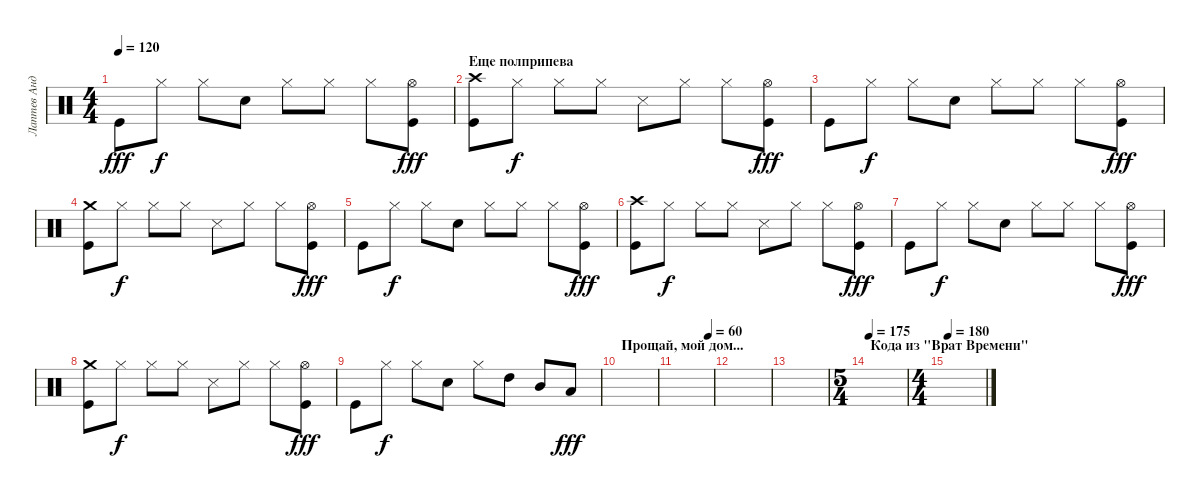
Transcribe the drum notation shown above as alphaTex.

\track ("Лаптев Андрей" "Лаптев Анд") {instrument percussion}
\staff {score}
\articulation defaults
\ts (4 4)
\tempo 120
\clef neutral
\ks c "Kick (hit)".8{dy fff} "Hi-Hat (closed)".8{dy f} "Hi-Hat (closed)".8 "Snare (hit) 2".8 "Hi-Hat (closed)".8 "Hi-Hat (closed)".8 "Hi-Hat (closed)".8
("Kick (hit)" "Hi-Hat (open)").8{dy fff} |
\section ("" "Еще полприпева")
("Kick (hit)" "Crash high (hit)").8 "Hi-Hat (closed)".8{dy f} "Hi-Hat (closed)".8 "Hi-Hat (closed)".8 "Snare (side stick) 3".8 "Hi-Hat (closed)".8 "Hi-Hat (closed)".8 ("Hi-Hat (open)" "Kick (hit)").8{dy fff} |
"Kick (hit)".8 "Hi-Hat (closed)".8{dy f} "Hi-Hat (closed)".8 "Snare (hit) 2".8 "Hi-Hat (closed)".8 "Hi-Hat (closed)".8 "Hi-Hat (closed)".8 ("Kick (hit)" "Hi-Hat (open)").8{dy fff} |
("Kick (hit)" "Crash medium (hit)").8 "Hi-Hat (closed)".8{dy f} "Hi-Hat (closed)".8 "Hi-Hat (closed)".8 "Snare (side stick) 3".8 "Hi-Hat (closed)".8 "Hi-Hat (closed)".8 ("Kick (hit)" "Hi-Hat (open)").8{dy fff} |
"Kick (hit)".8 "Hi-Hat (closed)".8{dy f} "Hi-Hat (closed)".8 "Snare (hit) 2".8 "Hi-Hat (closed)".8 "Hi-Hat (closed)".8 "Hi-Hat (closed)".8 ("Kick (hit)" "Hi-Hat (open)").8{dy fff} |
("Kick (hit)" "Crash high (hit)").8 "Hi-Hat (closed)".8{dy f} "Hi-Hat (closed)".8 "Hi-Hat (closed)".8 "Snare (side stick) 3".8 "Hi-Hat (closed)".8 "Hi-Hat (closed)".8 ("Hi-Hat (open)" "Kick (hit)").8{dy fff} |
"Kick (hit)".8 "Hi-Hat (closed)".8{dy f} "Hi-Hat (closed)".8 "Snare (hit) 2".8 "Hi-Hat (closed)".8 "Hi-Hat (closed)".8 "Hi-Hat (closed)".8 ("Kick (hit)" "Hi-Hat (open)").8{dy fff} |
("Kick (hit)" "Crash medium (hit)").8 "Hi-Hat (closed)".8{dy f} "Hi-Hat (closed)".8 "Hi-Hat (closed)".8 "Snare (side stick) 3".8 "Hi-Hat (closed)".8 "Hi-Hat (closed)".8 ("Kick (hit)" "Hi-Hat (open)").8{dy fff} |
"Kick (hit)".8 "Hi-Hat (closed)".8{dy f} "Hi-Hat (closed)".8 "Snare (hit) 2".8 "Hi-Hat (closed)".8 "High Tom (hit)".8 "Mid Tom (hit)".8 "Low Tom (hit)".8{dy fff} |
\section ("" "Прощай, мой дом...")
|
\tempo (60 0.875)
|
|
|
\ts (5 4)
\section ("" "Кода из \"Врат Времени\"")
\tempo 175
|
\ts (4 4)
\tempo 180
